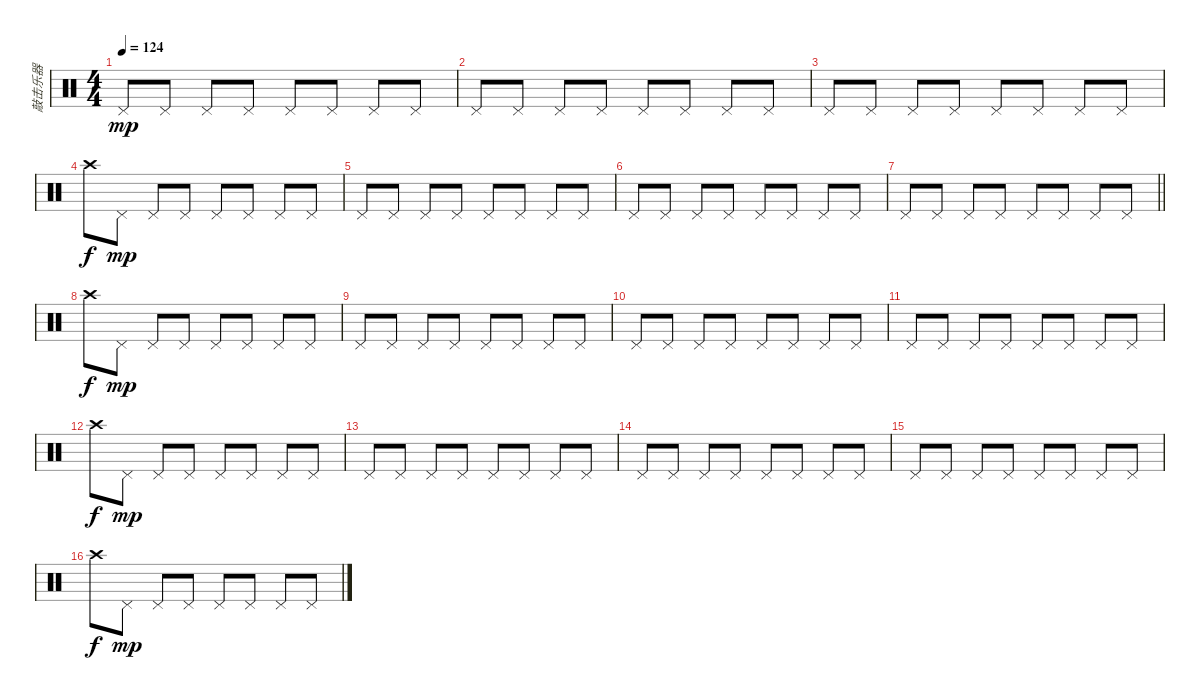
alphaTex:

\track ("敲击乐器" "敲击乐器") {instrument percussion}
\staff {score}
\articulation defaults
\ts (4 4)
\tempo 124
\clef neutral
\ks c "Pedal Hi-Hat (hit)".8{dy mp} "Pedal Hi-Hat (hit)".8 "Pedal Hi-Hat (hit)".8 "Pedal Hi-Hat (hit)".8 "Pedal Hi-Hat (hit)".8 "Pedal Hi-Hat (hit)".8 "Pedal Hi-Hat (hit)".8 "Pedal Hi-Hat (hit)".8
|
"Pedal Hi-Hat (hit)".8 "Pedal Hi-Hat (hit)".8 "Pedal Hi-Hat (hit)".8 "Pedal Hi-Hat (hit)".8 "Pedal Hi-Hat (hit)".8 "Pedal Hi-Hat (hit)".8 "Pedal Hi-Hat (hit)".8 "Pedal Hi-Hat (hit)".8 |
"Pedal Hi-Hat (hit)".8 "Pedal Hi-Hat (hit)".8 "Pedal Hi-Hat (hit)".8 "Pedal Hi-Hat (hit)".8 "Pedal Hi-Hat (hit)".8 "Pedal Hi-Hat (hit)".8 "Pedal Hi-Hat (hit)".8 "Pedal Hi-Hat (hit)".8 |
"Crash high (hit)".8{dy f} "Pedal Hi-Hat (hit)".8{dy mp} "Pedal Hi-Hat (hit)".8 "Pedal Hi-Hat (hit)".8 "Pedal Hi-Hat (hit)".8 "Pedal Hi-Hat (hit)".8 "Pedal Hi-Hat (hit)".8 "Pedal Hi-Hat (hit)".8 |
"Pedal Hi-Hat (hit)".8 "Pedal Hi-Hat (hit)".8 "Pedal Hi-Hat (hit)".8 "Pedal Hi-Hat (hit)".8 "Pedal Hi-Hat (hit)".8 "Pedal Hi-Hat (hit)".8 "Pedal Hi-Hat (hit)".8 "Pedal Hi-Hat (hit)".8 |
"Pedal Hi-Hat (hit)".8 "Pedal Hi-Hat (hit)".8 "Pedal Hi-Hat (hit)".8 "Pedal Hi-Hat (hit)".8 "Pedal Hi-Hat (hit)".8 "Pedal Hi-Hat (hit)".8 "Pedal Hi-Hat (hit)".8 "Pedal Hi-Hat (hit)".8 |
\barLineRight lightlight "Pedal Hi-Hat (hit)".8 "Pedal Hi-Hat (hit)".8 "Pedal Hi-Hat (hit)".8 "Pedal Hi-Hat (hit)".8 "Pedal Hi-Hat (hit)".8 "Pedal Hi-Hat (hit)".8 "Pedal Hi-Hat (hit)".8 "Pedal Hi-Hat (hit)".8
|
"Crash high (hit)".8{dy f} "Pedal Hi-Hat (hit)".8{dy mp} "Pedal Hi-Hat (hit)".8 "Pedal Hi-Hat (hit)".8 "Pedal Hi-Hat (hit)".8 "Pedal Hi-Hat (hit)".8 "Pedal Hi-Hat (hit)".8 "Pedal Hi-Hat (hit)".8 |
"Pedal Hi-Hat (hit)".8 "Pedal Hi-Hat (hit)".8 "Pedal Hi-Hat (hit)".8 "Pedal Hi-Hat (hit)".8 "Pedal Hi-Hat (hit)".8 "Pedal Hi-Hat (hit)".8 "Pedal Hi-Hat (hit)".8 "Pedal Hi-Hat (hit)".8 |
"Pedal Hi-Hat (hit)".8 "Pedal Hi-Hat (hit)".8 "Pedal Hi-Hat (hit)".8 "Pedal Hi-Hat (hit)".8 "Pedal Hi-Hat (hit)".8 "Pedal Hi-Hat (hit)".8 "Pedal Hi-Hat (hit)".8 "Pedal Hi-Hat (hit)".8 |
"Pedal Hi-Hat (hit)".8 "Pedal Hi-Hat (hit)".8 "Pedal Hi-Hat (hit)".8 "Pedal Hi-Hat (hit)".8 "Pedal Hi-Hat (hit)".8 "Pedal Hi-Hat (hit)".8 "Pedal Hi-Hat (hit)".8 "Pedal Hi-Hat (hit)".8 |
"Crash high (hit)".8{dy f} "Pedal Hi-Hat (hit)".8{dy mp} "Pedal Hi-Hat (hit)".8 "Pedal Hi-Hat (hit)".8 "Pedal Hi-Hat (hit)".8 "Pedal Hi-Hat (hit)".8 "Pedal Hi-Hat (hit)".8 "Pedal Hi-Hat (hit)".8 |
"Pedal Hi-Hat (hit)".8 "Pedal Hi-Hat (hit)".8 "Pedal Hi-Hat (hit)".8 "Pedal Hi-Hat (hit)".8 "Pedal Hi-Hat (hit)".8 "Pedal Hi-Hat (hit)".8 "Pedal Hi-Hat (hit)".8 "Pedal Hi-Hat (hit)".8 |
"Pedal Hi-Hat (hit)".8 "Pedal Hi-Hat (hit)".8 "Pedal Hi-Hat (hit)".8 "Pedal Hi-Hat (hit)".8 "Pedal Hi-Hat (hit)".8 "Pedal Hi-Hat (hit)".8 "Pedal Hi-Hat (hit)".8 "Pedal Hi-Hat (hit)".8 |
"Pedal Hi-Hat (hit)".8 "Pedal Hi-Hat (hit)".8 "Pedal Hi-Hat (hit)".8 "Pedal Hi-Hat (hit)".8 "Pedal Hi-Hat (hit)".8 "Pedal Hi-Hat (hit)".8 "Pedal Hi-Hat (hit)".8 "Pedal Hi-Hat (hit)".8 |
"Crash high (hit)".8{dy f} "Pedal Hi-Hat (hit)".8{dy mp} "Pedal Hi-Hat (hit)".8 "Pedal Hi-Hat (hit)".8 "Pedal Hi-Hat (hit)".8 "Pedal Hi-Hat (hit)".8 "Pedal Hi-Hat (hit)".8 "Pedal Hi-Hat (hit)".8
